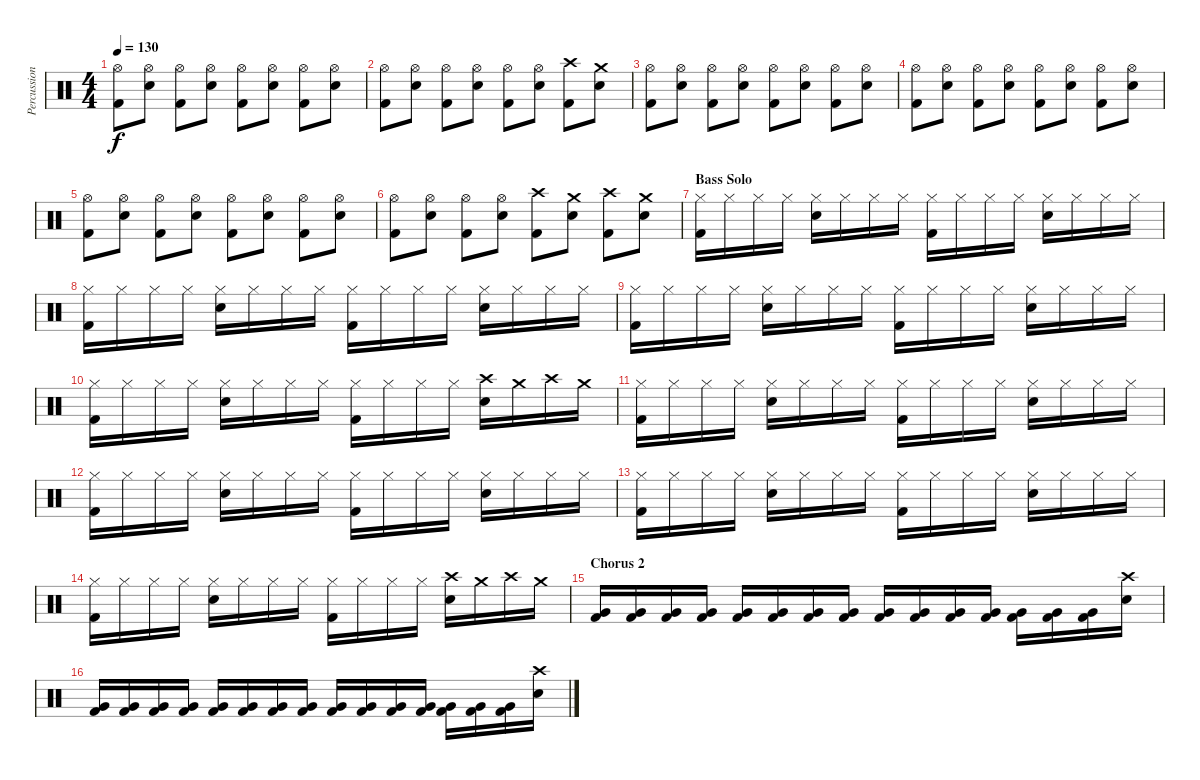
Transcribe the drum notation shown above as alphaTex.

\track ("Percussion" "Percussion") {instrument percussion}
\staff {score}
\articulation defaults
\ts (4 4)
\tempo 130
\clef neutral
\ks c
("Hi-Hat (open)" "Kick (hit) 2").8{dy f} ("Hi-Hat (open)" "Electric Snare (hit)").8 ("Hi-Hat (open)" "Kick (hit) 2").8 ("Hi-Hat (open)" "Electric Snare (hit)").8 ("Hi-Hat (open)" "Kick (hit) 2").8 ("Hi-Hat (open)" "Electric Snare (hit)").8 ("Hi-Hat (open)" "Kick (hit) 2").8 ("Hi-Hat (open)" "Electric Snare (hit)").8 |
("Hi-Hat (open)" "Kick (hit) 2").8 ("Hi-Hat (open)" "Electric Snare (hit)").8 ("Hi-Hat (open)" "Kick (hit) 2").8 ("Hi-Hat (open)" "Electric Snare (hit)").8 ("Hi-Hat (open)" "Kick (hit) 2").8 ("Hi-Hat (open)" "Electric Snare (hit)").8 ("Crash high (hit)" "Kick (hit) 2").8 ("Crash medium (hit)" "Electric Snare (hit)").8 |
("Hi-Hat (open)" "Kick (hit) 2").8 ("Hi-Hat (open)" "Electric Snare (hit)").8 ("Hi-Hat (open)" "Kick (hit) 2").8 ("Hi-Hat (open)" "Electric Snare (hit)").8 ("Hi-Hat (open)" "Kick (hit) 2").8 ("Hi-Hat (open)" "Electric Snare (hit)").8 ("Hi-Hat (open)" "Kick (hit) 2").8 ("Hi-Hat (open)" "Electric Snare (hit)").8 |
("Hi-Hat (open)" "Kick (hit) 2").8 ("Hi-Hat (open)" "Electric Snare (hit)").8 ("Hi-Hat (open)" "Kick (hit) 2").8 ("Hi-Hat (open)" "Electric Snare (hit)").8 ("Hi-Hat (open)" "Kick (hit) 2").8 ("Hi-Hat (open)" "Electric Snare (hit)").8 ("Hi-Hat (open)" "Kick (hit) 2").8 ("Hi-Hat (open)" "Electric Snare (hit)").8 |
("Hi-Hat (open)" "Kick (hit) 2").8 ("Hi-Hat (open)" "Electric Snare (hit)").8 ("Hi-Hat (open)" "Kick (hit) 2").8 ("Hi-Hat (open)" "Electric Snare (hit)").8 ("Hi-Hat (open)" "Kick (hit) 2").8 ("Hi-Hat (open)" "Electric Snare (hit)").8 ("Hi-Hat (open)" "Kick (hit) 2").8 ("Hi-Hat (open)" "Electric Snare (hit)").8 |
("Hi-Hat (open)" "Kick (hit) 2").8 ("Hi-Hat (open)" "Electric Snare (hit)").8 ("Hi-Hat (open)" "Kick (hit) 2").8 ("Hi-Hat (open)" "Electric Snare (hit)").8 ("Crash high (hit)" "Kick (hit) 2").8 ("Crash medium (hit)" "Electric Snare (hit)").8 ("Crash high (hit)" "Kick (hit) 2").8 ("Crash medium (hit)" "Electric Snare (hit)").8 |
\section ("" "Bass Solo")
("Hi-Hat (closed)" "Kick (hit) 2").16 "Hi-Hat (closed)".16 "Hi-Hat (closed)".16 "Hi-Hat (closed)".16 ("Hi-Hat (closed)" "Electric Snare (hit)").16 "Hi-Hat (closed)".16 "Hi-Hat (closed)".16 "Hi-Hat (closed)".16 ("Hi-Hat (closed)" "Kick (hit) 2").16 "Hi-Hat (closed)".16 "Hi-Hat (closed)".16 "Hi-Hat (closed)".16 ("Hi-Hat (closed)" "Electric Snare (hit)").16 "Hi-Hat (closed)".16 "Hi-Hat (closed)".16 "Hi-Hat (closed)".16 |
("Hi-Hat (closed)" "Kick (hit) 2").16 "Hi-Hat (closed)".16 "Hi-Hat (closed)".16 "Hi-Hat (closed)".16 ("Hi-Hat (closed)" "Electric Snare (hit)").16 "Hi-Hat (closed)".16 "Hi-Hat (closed)".16 "Hi-Hat (closed)".16 ("Hi-Hat (closed)" "Kick (hit) 2").16 "Hi-Hat (closed)".16 "Hi-Hat (closed)".16 "Hi-Hat (closed)".16 ("Hi-Hat (closed)" "Electric Snare (hit)").16 "Hi-Hat (closed)".16 "Hi-Hat (closed)".16 "Hi-Hat (closed)".16 |
("Hi-Hat (closed)" "Kick (hit) 2").16 "Hi-Hat (closed)".16 "Hi-Hat (closed)".16 "Hi-Hat (closed)".16 ("Hi-Hat (closed)" "Electric Snare (hit)").16 "Hi-Hat (closed)".16 "Hi-Hat (closed)".16 "Hi-Hat (closed)".16 ("Hi-Hat (closed)" "Kick (hit) 2").16 "Hi-Hat (closed)".16 "Hi-Hat (closed)".16 "Hi-Hat (closed)".16 ("Hi-Hat (closed)" "Electric Snare (hit)").16 "Hi-Hat (closed)".16 "Hi-Hat (closed)".16 "Hi-Hat (closed)".16 |
("Hi-Hat (closed)" "Kick (hit) 2").16 "Hi-Hat (closed)".16 "Hi-Hat (closed)".16 "Hi-Hat (closed)".16 ("Hi-Hat (closed)" "Electric Snare (hit)").16 "Hi-Hat (closed)".16 "Hi-Hat (closed)".16 "Hi-Hat (closed)".16 ("Hi-Hat (closed)" "Kick (hit) 2").16 "Hi-Hat (closed)".16 "Hi-Hat (closed)".16 "Hi-Hat (closed)".16 ("Crash high (hit)" "Electric Snare (hit)").16 "Crash medium (hit)".16 "Crash high (hit)".16 "Crash medium (hit)".16 |
("Hi-Hat (closed)" "Kick (hit) 2").16 "Hi-Hat (closed)".16 "Hi-Hat (closed)".16 "Hi-Hat (closed)".16 ("Hi-Hat (closed)" "Electric Snare (hit)").16 "Hi-Hat (closed)".16 "Hi-Hat (closed)".16 "Hi-Hat (closed)".16 ("Hi-Hat (closed)" "Kick (hit) 2").16 "Hi-Hat (closed)".16 "Hi-Hat (closed)".16 "Hi-Hat (closed)".16 ("Hi-Hat (closed)" "Electric Snare (hit)").16 "Hi-Hat (closed)".16 "Hi-Hat (closed)".16 "Hi-Hat (closed)".16 |
("Hi-Hat (closed)" "Kick (hit) 2").16 "Hi-Hat (closed)".16 "Hi-Hat (closed)".16 "Hi-Hat (closed)".16 ("Hi-Hat (closed)" "Electric Snare (hit)").16 "Hi-Hat (closed)".16 "Hi-Hat (closed)".16 "Hi-Hat (closed)".16 ("Hi-Hat (closed)" "Kick (hit) 2").16 "Hi-Hat (closed)".16 "Hi-Hat (closed)".16 "Hi-Hat (closed)".16 ("Hi-Hat (closed)" "Electric Snare (hit)").16 "Hi-Hat (closed)".16 "Hi-Hat (closed)".16 "Hi-Hat (closed)".16 |
("Hi-Hat (closed)" "Kick (hit) 2").16 "Hi-Hat (closed)".16 "Hi-Hat (closed)".16 "Hi-Hat (closed)".16 ("Hi-Hat (closed)" "Electric Snare (hit)").16 "Hi-Hat (closed)".16 "Hi-Hat (closed)".16 "Hi-Hat (closed)".16 ("Hi-Hat (closed)" "Kick (hit) 2").16 "Hi-Hat (closed)".16 "Hi-Hat (closed)".16 "Hi-Hat (closed)".16 ("Hi-Hat (closed)" "Electric Snare (hit)").16 "Hi-Hat (closed)".16 "Hi-Hat (closed)".16 "Hi-Hat (closed)".16 |
("Hi-Hat (closed)" "Kick (hit) 2").16 "Hi-Hat (closed)".16 "Hi-Hat (closed)".16 "Hi-Hat (closed)".16 ("Hi-Hat (closed)" "Electric Snare (hit)").16 "Hi-Hat (closed)".16 "Hi-Hat (closed)".16 "Hi-Hat (closed)".16 ("Hi-Hat (closed)" "Kick (hit) 2").16 "Hi-Hat (closed)".16 "Hi-Hat (closed)".16 "Hi-Hat (closed)".16 ("Crash high (hit)" "Electric Snare (hit)").16 "Crash medium (hit)".16 "Crash high (hit)".16 "Crash medium (hit)".16 |
\section ("" "Chorus 2")
("Very Low Tom (hit)" "Kick (hit) 2").16 ("Very Low Tom (hit)" "Kick (hit) 2").16 ("Very Low Tom (hit)" "Kick (hit) 2").16 ("Very Low Tom (hit)" "Kick (hit) 2").16 ("Very Low Tom (hit)" "Kick (hit) 2").16 ("Very Low Tom (hit)" "Kick (hit) 2").16 ("Very Low Tom (hit)" "Kick (hit) 2").16 ("Very Low Tom (hit)" "Kick (hit) 2").16 ("Very Low Tom (hit)" "Kick (hit) 2").16 ("Very Low Tom (hit)" "Kick (hit) 2").16 ("Very Low Tom (hit)" "Kick (hit) 2").16 ("Very Low Tom (hit)" "Kick (hit) 2").16 ("Very Low Tom (hit)" "Kick (hit) 2").16 ("Very Low Tom (hit)" "Kick (hit) 2").16 ("Very Low Tom (hit)" "Kick (hit) 2").16 ("Crash high (hit)" "Electric Snare (hit)").16 |
("Very Low Tom (hit)" "Kick (hit) 2").16 ("Very Low Tom (hit)" "Kick (hit) 2").16 ("Very Low Tom (hit)" "Kick (hit) 2").16 ("Very Low Tom (hit)" "Kick (hit) 2").16 ("Very Low Tom (hit)" "Kick (hit) 2").16 ("Very Low Tom (hit)" "Kick (hit) 2").16 ("Very Low Tom (hit)" "Kick (hit) 2").16 ("Very Low Tom (hit)" "Kick (hit) 2").16 ("Very Low Tom (hit)" "Kick (hit) 2").16 ("Very Low Tom (hit)" "Kick (hit) 2").16 ("Very Low Tom (hit)" "Kick (hit) 2").16 ("Very Low Tom (hit)" "Kick (hit) 2").16 ("Very Low Tom (hit)" "Kick (hit) 2").16 ("Very Low Tom (hit)" "Kick (hit) 2").16 ("Very Low Tom (hit)" "Kick (hit) 2").16 ("Crash high (hit)" "Electric Snare (hit)").16
